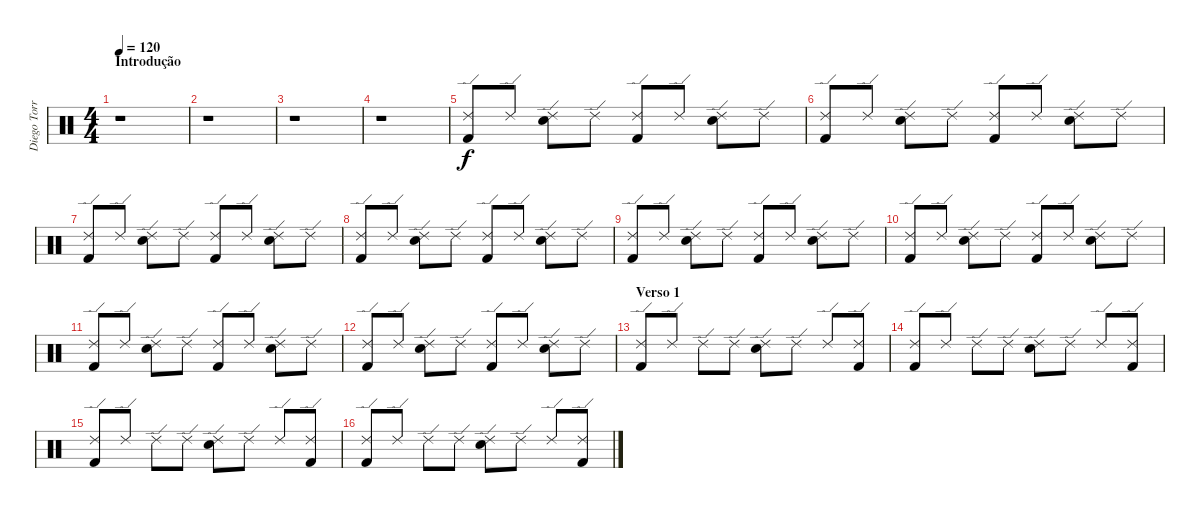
\track ("Diego Torres [Bateria]" "Diego Torr") {instrument percussion}
\staff {score}
\articulation defaults
\ts (4 4)
\section ("" "Introdução")
\tempo 120
\clef neutral
\ks c
r.1{dy f} |
r.1 |
r.1 |
r.1 |
("Ride (edge) 2" "Kick (hit) 2").8 "Ride (edge) 2".8 ("Ride (edge) 2" "Electric Snare (hit)").8 "Ride (edge) 2".8 ("Ride (edge) 2" "Kick (hit) 2").8 "Ride (edge) 2".8 ("Ride (edge) 2" "Electric Snare (hit)").8 "Ride (edge) 2".8 |
("Ride (edge) 2" "Kick (hit) 2").8 "Ride (edge) 2".8 ("Ride (edge) 2" "Electric Snare (hit)").8 "Ride (edge) 2".8 ("Ride (edge) 2" "Kick (hit) 2").8 "Ride (edge) 2".8 ("Ride (edge) 2" "Electric Snare (hit)").8 "Ride (edge) 2".8 |
("Ride (edge) 2" "Kick (hit) 2").8 "Ride (edge) 2".8 ("Ride (edge) 2" "Electric Snare (hit)").8 "Ride (edge) 2".8 ("Ride (edge) 2" "Kick (hit) 2").8 "Ride (edge) 2".8 ("Ride (edge) 2" "Electric Snare (hit)").8 "Ride (edge) 2".8 |
("Ride (edge) 2" "Kick (hit) 2").8 "Ride (edge) 2".8 ("Ride (edge) 2" "Electric Snare (hit)").8 "Ride (edge) 2".8 ("Ride (edge) 2" "Kick (hit) 2").8 "Ride (edge) 2".8 ("Ride (edge) 2" "Electric Snare (hit)").8 "Ride (edge) 2".8 |
("Ride (edge) 2" "Kick (hit) 2").8 "Ride (edge) 2".8 ("Ride (edge) 2" "Electric Snare (hit)").8 "Ride (edge) 2".8 ("Ride (edge) 2" "Kick (hit) 2").8 "Ride (edge) 2".8 ("Ride (edge) 2" "Electric Snare (hit)").8 "Ride (edge) 2".8 |
("Ride (edge) 2" "Kick (hit) 2").8 "Ride (edge) 2".8 ("Ride (edge) 2" "Electric Snare (hit)").8 "Ride (edge) 2".8 ("Ride (edge) 2" "Kick (hit) 2").8 "Ride (edge) 2".8 ("Ride (edge) 2" "Electric Snare (hit)").8 "Ride (edge) 2".8 |
("Ride (edge) 2" "Kick (hit) 2").8 "Ride (edge) 2".8 ("Ride (edge) 2" "Electric Snare (hit)").8 "Ride (edge) 2".8 ("Ride (edge) 2" "Kick (hit) 2").8 "Ride (edge) 2".8 ("Ride (edge) 2" "Electric Snare (hit)").8 "Ride (edge) 2".8 |
("Ride (edge) 2" "Kick (hit) 2").8 "Ride (edge) 2".8 ("Ride (edge) 2" "Electric Snare (hit)").8 "Ride (edge) 2".8 ("Ride (edge) 2" "Kick (hit) 2").8 "Ride (edge) 2".8 ("Ride (edge) 2" "Electric Snare (hit)").8 "Ride (edge) 2".8 |
\section ("" "Verso 1")
("Ride (edge) 2" "Kick (hit) 2").8 "Ride (edge) 2".8 "Ride (edge) 2".8 "Ride (edge) 2".8 ("Ride (edge) 2" "Electric Snare (hit)").8 "Ride (edge) 2".8 "Ride (edge) 2".8 ("Ride (edge) 2" "Kick (hit) 2").8 |
("Ride (edge) 2" "Kick (hit) 2").8 "Ride (edge) 2".8 "Ride (edge) 2".8 "Ride (edge) 2".8 ("Ride (edge) 2" "Electric Snare (hit)").8 "Ride (edge) 2".8 "Ride (edge) 2".8 ("Ride (edge) 2" "Kick (hit) 2").8 |
("Ride (edge) 2" "Kick (hit) 2").8 "Ride (edge) 2".8 "Ride (edge) 2".8 "Ride (edge) 2".8 ("Ride (edge) 2" "Electric Snare (hit)").8 "Ride (edge) 2".8 "Ride (edge) 2".8 ("Ride (edge) 2" "Kick (hit) 2").8 |
("Ride (edge) 2" "Kick (hit) 2").8 "Ride (edge) 2".8 "Ride (edge) 2".8 "Ride (edge) 2".8 ("Ride (edge) 2" "Electric Snare (hit)").8 "Ride (edge) 2".8 "Ride (edge) 2".8 ("Ride (edge) 2" "Kick (hit) 2").8
